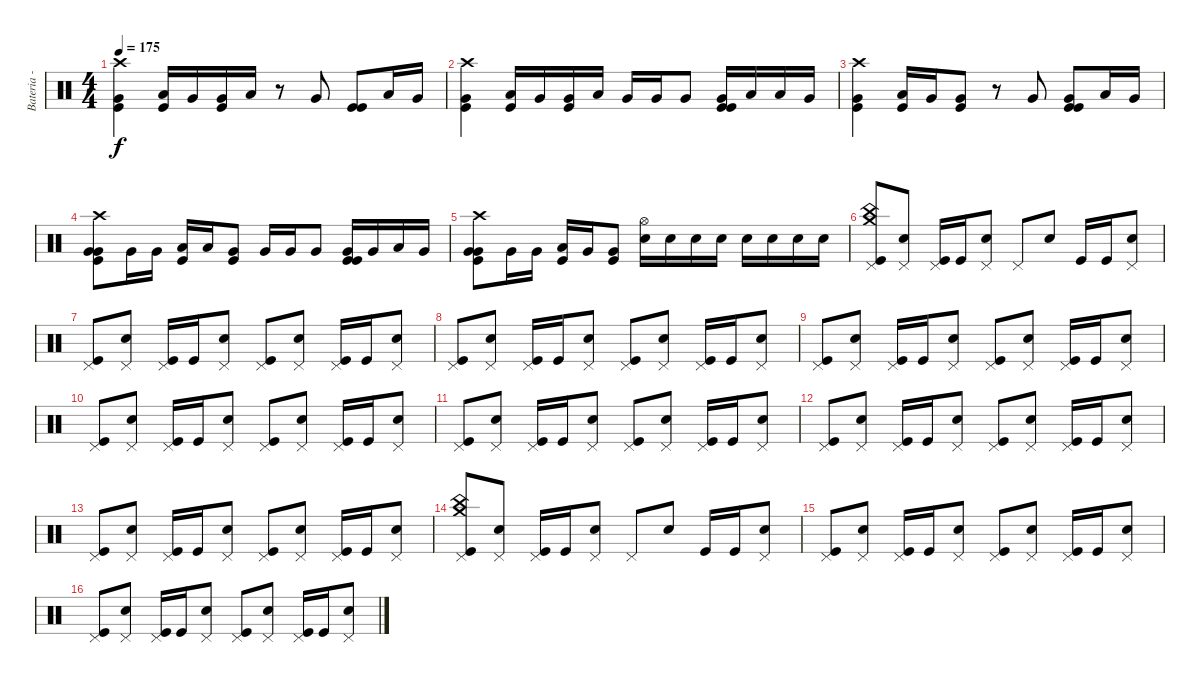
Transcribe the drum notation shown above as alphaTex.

\track ("Bateria - Larzon" "Bateria - ") {instrument percussion}
\staff {score}
\articulation defaults
\ts (4 4)
\tempo 175
\clef neutral
\ks c
("Crash high (hit)" "Very Low Tom (hit)" "Kick (hit)").4{dy f} ("Kick (hit)" "Low Tom (hit)").16 "Very Low Tom (hit)".16 ("Kick (hit)" "Very Low Tom (hit)").16 "Low Tom (hit)".16 r.8 "Very Low Tom (hit)".8 ("Kick (hit)" "Kick (hit)").8 "Low Tom (hit)".16 "Very Low Tom (hit)".16 |
("Very Low Tom (hit)" "Crash high (hit)" "Kick (hit)").4 ("Kick (hit)" "Low Tom (hit)").16 "Very Low Tom (hit)".16 ("Kick (hit)" "Very Low Tom (hit)").16 "Low Tom (hit)".16 "Very Low Tom (hit)".16 "Very Low Tom (hit)".16 "Very Low Tom (hit)".8 ("Kick (hit)" "Kick (hit)" "Very Low Tom (hit)").16 "Low Tom (hit)".16 "Low Tom (hit)".16 "Very Low Tom (hit)".16 |
("Crash high (hit)" "Very Low Tom (hit)" "Kick (hit)").4 ("Kick (hit)" "Low Tom (hit)").16 "Very Low Tom (hit)".16 ("Kick (hit)" "Very Low Tom (hit)").8 r.8 "Very Low Tom (hit)".8 ("Kick (hit)" "Kick (hit)" "Very Low Tom (hit)").8 "Low Tom (hit)".16 "Very Low Tom (hit)".16 |
("Very Low Tom (hit)" "Crash high (hit)" "Kick (hit)" "Very Low Tom (hit)").8 "Very Low Tom (hit)".16 "Very Low Tom (hit)".16 ("Kick (hit)" "Low Tom (hit)").16 "Low Tom (hit)".16 ("Kick (hit)" "Very Low Tom (hit)").8 "Very Low Tom (hit)".16 "Very Low Tom (hit)".16 "Very Low Tom (hit)".8 ("Kick (hit)" "Kick (hit)" "Very Low Tom (hit)").16 "Very Low Tom (hit)".16 "Low Tom (hit)".16 "Very Low Tom (hit)".16 |
("Crash high (hit)" "Very Low Tom (hit)" "Kick (hit)" "Very Low Tom (hit)").8 "Very Low Tom (hit)".16 "Very Low Tom (hit)".16 ("Kick (hit)" "Low Tom (hit)").16 "Very Low Tom (hit)".16 ("Kick (hit)" "Very Low Tom (hit)").8 ("Snare (hit) 2" "Hi-Hat (open)").16 "Snare (hit) 2".16 "Snare (hit) 2".16 "Snare (hit) 2".16 "Snare (hit) 2".16 "Snare (hit) 2".16 "Snare (hit) 2".16 "Snare (hit) 2".16 |
("China (hit)" "Crash medium (hit)" "Pedal Hi-Hat (hit)" "Kick (hit)").8 ("Snare (hit) 2" "Pedal Hi-Hat (hit)").8 ("Kick (hit)" "Pedal Hi-Hat (hit)").16 "Kick (hit)".16 ("Snare (hit) 2" "Pedal Hi-Hat (hit)").8 "Pedal Hi-Hat (hit)".8 "Snare (hit) 2".8 "Kick (hit)".16 "Kick (hit)".16 ("Snare (hit) 2" "Pedal Hi-Hat (hit)").8 |
("Kick (hit)" "Pedal Hi-Hat (hit)").8 ("Snare (hit) 2" "Pedal Hi-Hat (hit)").8 ("Kick (hit)" "Pedal Hi-Hat (hit)").16 "Kick (hit)".16 ("Snare (hit) 2" "Pedal Hi-Hat (hit)").8 ("Pedal Hi-Hat (hit)" "Kick (hit)").8 ("Snare (hit) 2" "Pedal Hi-Hat (hit)").8 ("Kick (hit)" "Pedal Hi-Hat (hit)").16 "Kick (hit)".16 ("Snare (hit) 2" "Pedal Hi-Hat (hit)").8 |
("Kick (hit)" "Pedal Hi-Hat (hit)").8 ("Snare (hit) 2" "Pedal Hi-Hat (hit)").8 ("Kick (hit)" "Pedal Hi-Hat (hit)").16 "Kick (hit)".16 ("Snare (hit) 2" "Pedal Hi-Hat (hit)").8 ("Pedal Hi-Hat (hit)" "Kick (hit)").8 ("Snare (hit) 2" "Pedal Hi-Hat (hit)").8 ("Kick (hit)" "Pedal Hi-Hat (hit)").16 "Kick (hit)".16 ("Snare (hit) 2" "Pedal Hi-Hat (hit)").8 |
("Kick (hit)" "Pedal Hi-Hat (hit)").8 ("Snare (hit) 2" "Pedal Hi-Hat (hit)").8 ("Kick (hit)" "Pedal Hi-Hat (hit)").16 "Kick (hit)".16 ("Snare (hit) 2" "Pedal Hi-Hat (hit)").8 ("Pedal Hi-Hat (hit)" "Kick (hit)").8 ("Snare (hit) 2" "Pedal Hi-Hat (hit)").8 ("Kick (hit)" "Pedal Hi-Hat (hit)").16 "Kick (hit)".16 ("Snare (hit) 2" "Pedal Hi-Hat (hit)").8 |
("Kick (hit)" "Pedal Hi-Hat (hit)").8 ("Snare (hit) 2" "Pedal Hi-Hat (hit)").8 ("Kick (hit)" "Pedal Hi-Hat (hit)").16 "Kick (hit)".16 ("Snare (hit) 2" "Pedal Hi-Hat (hit)").8 ("Pedal Hi-Hat (hit)" "Kick (hit)").8 ("Snare (hit) 2" "Pedal Hi-Hat (hit)").8 ("Kick (hit)" "Pedal Hi-Hat (hit)").16 "Kick (hit)".16 ("Snare (hit) 2" "Pedal Hi-Hat (hit)").8 |
("Kick (hit)" "Pedal Hi-Hat (hit)").8 ("Snare (hit) 2" "Pedal Hi-Hat (hit)").8 ("Kick (hit)" "Pedal Hi-Hat (hit)").16 "Kick (hit)".16 ("Snare (hit) 2" "Pedal Hi-Hat (hit)").8 ("Pedal Hi-Hat (hit)" "Kick (hit)").8 ("Snare (hit) 2" "Pedal Hi-Hat (hit)").8 ("Kick (hit)" "Pedal Hi-Hat (hit)").16 "Kick (hit)".16 ("Snare (hit) 2" "Pedal Hi-Hat (hit)").8 |
("Kick (hit)" "Pedal Hi-Hat (hit)").8 ("Snare (hit) 2" "Pedal Hi-Hat (hit)").8 ("Kick (hit)" "Pedal Hi-Hat (hit)").16 "Kick (hit)".16 ("Snare (hit) 2" "Pedal Hi-Hat (hit)").8 ("Pedal Hi-Hat (hit)" "Kick (hit)").8 ("Snare (hit) 2" "Pedal Hi-Hat (hit)").8 ("Kick (hit)" "Pedal Hi-Hat (hit)").16 "Kick (hit)".16 ("Snare (hit) 2" "Pedal Hi-Hat (hit)").8 |
("Kick (hit)" "Pedal Hi-Hat (hit)").8 ("Snare (hit) 2" "Pedal Hi-Hat (hit)").8 ("Kick (hit)" "Pedal Hi-Hat (hit)").16 "Kick (hit)".16 ("Snare (hit) 2" "Pedal Hi-Hat (hit)").8 ("Pedal Hi-Hat (hit)" "Kick (hit)").8 ("Snare (hit) 2" "Pedal Hi-Hat (hit)").8 ("Kick (hit)" "Pedal Hi-Hat (hit)").16 "Kick (hit)".16 ("Snare (hit) 2" "Pedal Hi-Hat (hit)").8 |
("China (hit)" "Crash medium (hit)" "Pedal Hi-Hat (hit)" "Kick (hit)").8 ("Snare (hit) 2" "Pedal Hi-Hat (hit)").8 ("Kick (hit)" "Pedal Hi-Hat (hit)").16 "Kick (hit)".16 ("Snare (hit) 2" "Pedal Hi-Hat (hit)").8 "Pedal Hi-Hat (hit)".8 "Snare (hit) 2".8 "Kick (hit)".16 "Kick (hit)".16 ("Snare (hit) 2" "Pedal Hi-Hat (hit)").8 |
("Kick (hit)" "Pedal Hi-Hat (hit)").8 ("Snare (hit) 2" "Pedal Hi-Hat (hit)").8 ("Kick (hit)" "Pedal Hi-Hat (hit)").16 "Kick (hit)".16 ("Snare (hit) 2" "Pedal Hi-Hat (hit)").8 ("Pedal Hi-Hat (hit)" "Kick (hit)").8 ("Snare (hit) 2" "Pedal Hi-Hat (hit)").8 ("Kick (hit)" "Pedal Hi-Hat (hit)").16 "Kick (hit)".16 ("Snare (hit) 2" "Pedal Hi-Hat (hit)").8 |
("Kick (hit)" "Pedal Hi-Hat (hit)").8 ("Snare (hit) 2" "Pedal Hi-Hat (hit)").8 ("Kick (hit)" "Pedal Hi-Hat (hit)").16 "Kick (hit)".16 ("Snare (hit) 2" "Pedal Hi-Hat (hit)").8 ("Pedal Hi-Hat (hit)" "Kick (hit)").8 ("Snare (hit) 2" "Pedal Hi-Hat (hit)").8 ("Kick (hit)" "Pedal Hi-Hat (hit)").16 "Kick (hit)".16 ("Snare (hit) 2" "Pedal Hi-Hat (hit)").8
